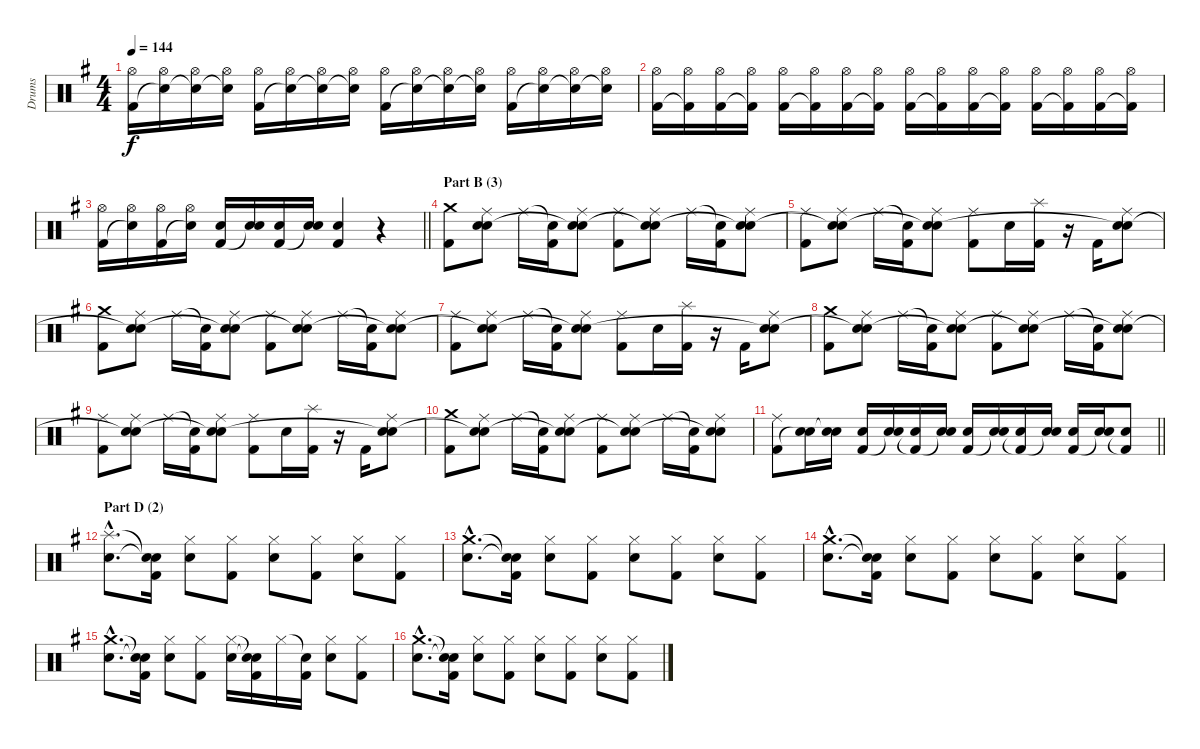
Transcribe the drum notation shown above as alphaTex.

\track ("Drums" "Drums") {instrument percussion}
\staff {score}
\articulation defaults
\ts (4 4)
\tempo 144
\clef neutral
\ks g
("Hi-Hat (open)" "Kick (hit) 2").16{dy f} ("Hi-Hat (open)" "Snare (hit)"{t}).16 ("Hi-Hat (open)" "Snare (hit)"{t}).16 ("Hi-Hat (open)" "Snare (hit)"{t}).16 ("Hi-Hat (open)" "Kick (hit) 2").16 ("Hi-Hat (open)" "Snare (hit)"{t}).16 ("Hi-Hat (open)" "Snare (hit)"{t}).16 ("Hi-Hat (open)" "Snare (hit)"{t}).16 ("Hi-Hat (open)" "Kick (hit) 2").16 ("Hi-Hat (open)" "Snare (hit)"{t}).16 ("Hi-Hat (open)" "Snare (hit)"{t}).16 ("Hi-Hat (open)" "Snare (hit)"{t}).16 ("Hi-Hat (open)" "Kick (hit) 2").16 ("Hi-Hat (open)" "Snare (hit)"{t}).16 ("Hi-Hat (open)" "Snare (hit)"{t}).16 ("Hi-Hat (open)" "Snare (hit)"{t}).16 |
("Hi-Hat (open)" "Kick (hit) 2").16 ("Hi-Hat (open)" "Kick (hit) 2"{t}).16 ("Hi-Hat (open)" "Kick (hit) 2").16 ("Hi-Hat (open)" "Kick (hit) 2"{t}).16 ("Hi-Hat (open)" "Kick (hit) 2").16 ("Hi-Hat (open)" "Kick (hit) 2"{t}).16 ("Hi-Hat (open)" "Kick (hit) 2").16 ("Hi-Hat (open)" "Kick (hit) 2"{t}).16 ("Hi-Hat (open)" "Kick (hit) 2").16 ("Hi-Hat (open)" "Kick (hit) 2"{t}).16 ("Hi-Hat (open)" "Kick (hit) 2").16 ("Hi-Hat (open)" "Kick (hit) 2"{t}).16 ("Hi-Hat (open)" "Kick (hit) 2").16 ("Hi-Hat (open)" "Kick (hit) 2"{t}).16 ("Hi-Hat (open)" "Kick (hit) 2").16 ("Hi-Hat (open)" "Kick (hit) 2"{t}).16 |
\barLineRight lightlight
("Hi-Hat (open)" "Kick (hit) 2").16 ("Hi-Hat (open)" "Snare (hit)"{t}).16 ("Hi-Hat (open)" "Kick (hit) 2").16 ("Hi-Hat (open)" "Snare (hit)"{t}).16 ("Electric Snare (hit)" "Kick (hit) 2").16 ("Electric Snare (hit)" "Snare (hit)"{t}).16 ("Electric Snare (hit)" "Kick (hit) 2").16 ("Electric Snare (hit)" "Snare (hit)"{t}).16 ("Electric Snare (hit)" "Kick (hit) 2").4 r.4 |
\section ("" "Part B (3)")
("Crash medium (hit)" "Kick (hit) 2").8 ("Ride (middle)" "Electric Snare (hit)" "Snare (hit)").8 "Ride (middle)".16 ("Snare (hit)"{t} "Kick (hit) 2").16 ("Ride (middle)" "Electric Snare (hit)" "Snare (hit)"{t}).8 ("Ride (middle)" "Kick (hit) 2").8 ("Ride (middle)" "Electric Snare (hit)" "Snare (hit)"{t}).8 "Ride (middle)".16 ("Snare (hit)"{t} "Kick (hit) 2").16 ("Ride (middle)" "Electric Snare (hit)" "Snare (hit)"{t}).8 |
("Ride (middle)" "Kick (hit) 2").8 ("Ride (middle)" "Electric Snare (hit)" "Snare (hit)"{t}).8 "Ride (middle)".16 ("Snare (hit)"{t} "Kick (hit) 2").16 ("Ride (middle)" "Electric Snare (hit)" "Snare (hit)"{t}).8 ("Ride (middle)" "Kick (hit) 2").8 "Electric Snare (hit)".16 ("Splash (hit)" "Kick (hit) 2").16 r.16 "Kick (hit) 2".16 ("Ride (middle)" "Electric Snare (hit)" "Snare (hit)"{t}).8 |
("Crash medium (hit)" "Kick (hit) 2").8 ("Ride (middle)" "Electric Snare (hit)" "Snare (hit)"{t}).8 "Ride (middle)".16 ("Snare (hit)"{t} "Kick (hit) 2").16 ("Ride (middle)" "Electric Snare (hit)" "Snare (hit)"{t}).8 ("Ride (middle)" "Kick (hit) 2").8 ("Ride (middle)" "Electric Snare (hit)" "Snare (hit)"{t}).8 "Ride (middle)".16 ("Snare (hit)"{t} "Kick (hit) 2").16 ("Ride (middle)" "Electric Snare (hit)" "Snare (hit)"{t}).8 |
("Ride (middle)" "Kick (hit) 2").8 ("Ride (middle)" "Electric Snare (hit)" "Snare (hit)"{t}).8 "Ride (middle)".16 ("Snare (hit)"{t} "Kick (hit) 2").16 ("Ride (middle)" "Electric Snare (hit)" "Snare (hit)"{t}).8 ("Ride (middle)" "Kick (hit) 2").8 "Electric Snare (hit)".16 ("Splash (hit)" "Kick (hit) 2").16 r.16 "Kick (hit) 2".16 ("Ride (middle)" "Electric Snare (hit)" "Snare (hit)"{t}).8 |
("Crash medium (hit)" "Kick (hit) 2").8 ("Ride (middle)" "Electric Snare (hit)" "Snare (hit)"{t}).8 "Ride (middle)".16 ("Snare (hit)"{t} "Kick (hit) 2").16 ("Ride (middle)" "Electric Snare (hit)" "Snare (hit)"{t}).8 ("Ride (middle)" "Kick (hit) 2").8 ("Ride (middle)" "Electric Snare (hit)" "Snare (hit)"{t}).8 "Ride (middle)".16 ("Snare (hit)"{t} "Kick (hit) 2").16 ("Ride (middle)" "Electric Snare (hit)" "Snare (hit)"{t}).8 |
("Ride (middle)" "Kick (hit) 2").8 ("Ride (middle)" "Electric Snare (hit)" "Snare (hit)"{t}).8 "Ride (middle)".16 ("Snare (hit)"{t} "Kick (hit) 2").16 ("Ride (middle)" "Electric Snare (hit)" "Snare (hit)"{t}).8 ("Ride (middle)" "Kick (hit) 2").8 "Electric Snare (hit)".16 ("Splash (hit)" "Kick (hit) 2").16 r.16 "Kick (hit) 2".16 ("Ride (middle)" "Electric Snare (hit)" "Snare (hit)"{t}).8 |
("Crash medium (hit)" "Kick (hit) 2").8 ("Ride (middle)" "Electric Snare (hit)" "Snare (hit)"{t}).8 "Ride (middle)".16 ("Snare (hit)"{t} "Kick (hit) 2").16 ("Ride (middle)" "Electric Snare (hit)" "Snare (hit)"{t}).8 ("Ride (middle)" "Kick (hit) 2").8 ("Ride (middle)" "Electric Snare (hit)" "Snare (hit)"{t}).8 "Ride (middle)".16 ("Snare (hit)"{t} "Kick (hit) 2").16 ("Ride (middle)" "Electric Snare (hit)" "Snare (hit)"{t}).8 |
\barLineRight lightlight
("Ride (middle)" "Kick (hit) 2").8 ("Electric Snare (hit)" "Snare (hit)"{t}).16 ("Electric Snare (hit)" "Snare (hit)"{t}).16 ("Electric Snare (hit)" "Kick (hit) 2").16 ("Electric Snare (hit)" "Snare (hit)"{t}).16 ("Electric Snare (hit)" "Kick (hit) 2"{t}).16 ("Electric Snare (hit)" "Snare (hit)"{t}).16 ("Electric Snare (hit)" "Kick (hit) 2").16 ("Electric Snare (hit)" "Snare (hit)"{t}).16 ("Electric Snare (hit)" "Kick (hit) 2"{t}).16 ("Electric Snare (hit)" "Snare (hit)"{t}).16 ("Electric Snare (hit)" "Kick (hit) 2").16 ("Electric Snare (hit)" "Snare (hit)"{t}).16 ("Electric Snare (hit)" "Kick (hit) 2"{t}).8 |
\section ("" "Part D (2)")
("Splash (hit)"{hac} "Electric Snare (hit)"{hac}).8{d} ("Snare (hit)"{t} "Snare (hit)"{t} "Kick (hit) 2").16 ("Hi-Hat (closed)" "Electric Snare (hit)").8 ("Hi-Hat (closed)" "Kick (hit) 2").8 ("Hi-Hat (closed)" "Electric Snare (hit)").8 ("Hi-Hat (closed)" "Kick (hit) 2").8 ("Hi-Hat (closed)" "Electric Snare (hit)").8 ("Hi-Hat (closed)" "Kick (hit) 2").8 |
("Crash medium (hit)"{hac} "Electric Snare (hit)"{hac}).8{d} ("Snare (hit)"{t} "Snare (hit)"{t} "Kick (hit) 2").16 ("Hi-Hat (closed)" "Electric Snare (hit)").8 ("Hi-Hat (closed)" "Kick (hit) 2").8 ("Hi-Hat (closed)" "Electric Snare (hit)").8 ("Hi-Hat (closed)" "Kick (hit) 2").8 ("Hi-Hat (closed)" "Electric Snare (hit)").8 ("Hi-Hat (closed)" "Kick (hit) 2").8 |
("Crash medium (hit)"{hac} "Electric Snare (hit)"{hac}).8{d} ("Snare (hit)"{t} "Snare (hit)"{t} "Kick (hit) 2").16 ("Hi-Hat (closed)" "Electric Snare (hit)").8 ("Hi-Hat (closed)" "Kick (hit) 2").8 ("Hi-Hat (closed)" "Electric Snare (hit)").8 ("Hi-Hat (closed)" "Kick (hit) 2").8 ("Hi-Hat (closed)" "Electric Snare (hit)").8 ("Hi-Hat (closed)" "Kick (hit) 2").8 |
("Crash medium (hit)"{hac} "Electric Snare (hit)"{hac}).8{d} ("Snare (hit)"{t} "Snare (hit)"{t} "Kick (hit) 2").16 ("Hi-Hat (closed)" "Electric Snare (hit)").8 ("Hi-Hat (closed)" "Kick (hit) 2").8 ("Hi-Hat (closed)" "Electric Snare (hit)").16 ("Snare (hit)"{t} "Snare (hit)"{t} "Kick (hit) 2").16 "Hi-Hat (closed)".16 ("Snare (hit)"{t} "Kick (hit) 2").16 ("Hi-Hat (closed)" "Electric Snare (hit)").8 ("Hi-Hat (closed)" "Kick (hit) 2").8 |
("Crash medium (hit)"{hac} "Electric Snare (hit)"{hac}).8{d} ("Snare (hit)"{t} "Snare (hit)"{t} "Kick (hit) 2").16 ("Hi-Hat (closed)" "Electric Snare (hit)").8 ("Hi-Hat (closed)" "Kick (hit) 2").8 ("Hi-Hat (closed)" "Electric Snare (hit)").8 ("Hi-Hat (closed)" "Kick (hit) 2").8 ("Hi-Hat (closed)" "Electric Snare (hit)").8 ("Hi-Hat (closed)" "Kick (hit) 2").8
